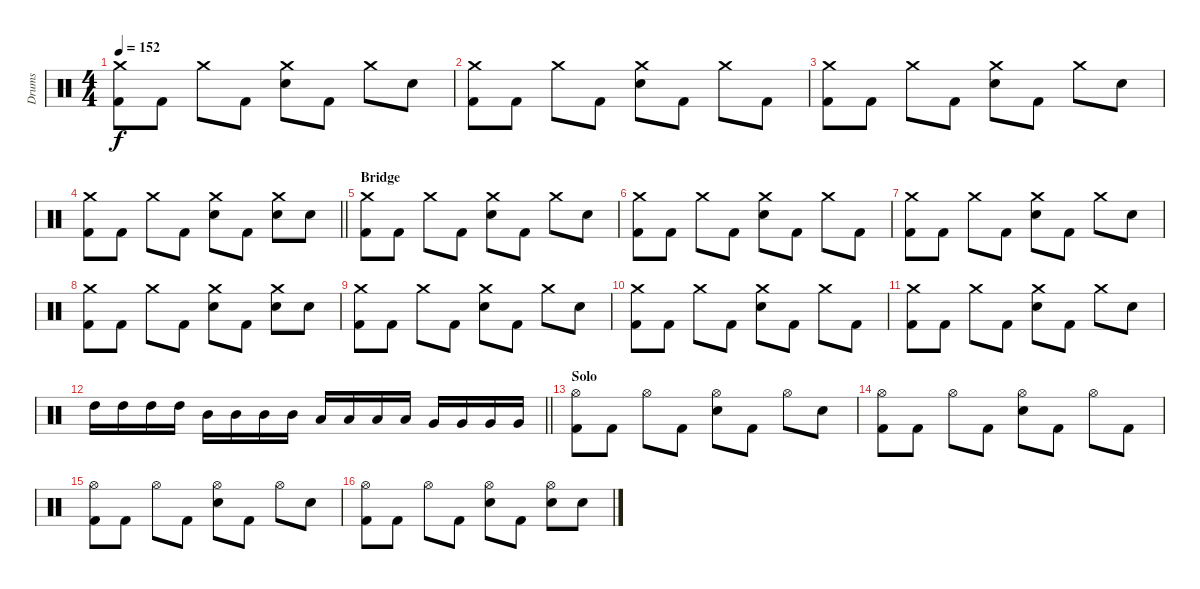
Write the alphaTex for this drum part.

\track ("Drums" "Drums") {instrument percussion}
\staff {score}
\articulation defaults
\ts (4 4)
\tempo 152
\clef neutral
\ks c
("Crash medium (hit)" "Kick (hit) 2").8{dy f} "Kick (hit) 2".8 "Crash medium (hit)".8 "Kick (hit) 2".8 ("Crash medium (hit)" "Electric Snare (hit)").8 "Kick (hit) 2".8 "Crash medium (hit)".8 "Electric Snare (hit)".8 |
("Crash medium (hit)" "Kick (hit) 2").8 "Kick (hit) 2".8 "Crash medium (hit)".8 "Kick (hit) 2".8 ("Crash medium (hit)" "Electric Snare (hit)").8 "Kick (hit) 2".8 "Crash medium (hit)".8 "Kick (hit) 2".8 |
("Crash medium (hit)" "Kick (hit) 2").8 "Kick (hit) 2".8 "Crash medium (hit)".8 "Kick (hit) 2".8 ("Crash medium (hit)" "Electric Snare (hit)").8 "Kick (hit) 2".8 "Crash medium (hit)".8 "Electric Snare (hit)".8 |
\barLineRight lightlight
("Crash medium (hit)" "Kick (hit) 2").8 "Kick (hit) 2".8 "Crash medium (hit)".8 "Kick (hit) 2".8 ("Crash medium (hit)" "Electric Snare (hit)").8 "Kick (hit) 2".8 ("Crash medium (hit)" "Electric Snare (hit)").8 "Electric Snare (hit)".8 |
\section ("" "Bridge")
("Crash medium (hit)" "Kick (hit) 2").8 "Kick (hit) 2".8 "Crash medium (hit)".8 "Kick (hit) 2".8 ("Crash medium (hit)" "Electric Snare (hit)").8 "Kick (hit) 2".8 "Crash medium (hit)".8 "Electric Snare (hit)".8 |
("Crash medium (hit)" "Kick (hit) 2").8 "Kick (hit) 2".8 "Crash medium (hit)".8 "Kick (hit) 2".8 ("Crash medium (hit)" "Electric Snare (hit)").8 "Kick (hit) 2".8 "Crash medium (hit)".8 "Kick (hit) 2".8 |
("Crash medium (hit)" "Kick (hit) 2").8 "Kick (hit) 2".8 "Crash medium (hit)".8 "Kick (hit) 2".8 ("Crash medium (hit)" "Electric Snare (hit)").8 "Kick (hit) 2".8 "Crash medium (hit)".8 "Electric Snare (hit)".8 |
("Crash medium (hit)" "Kick (hit) 2").8 "Kick (hit) 2".8 "Crash medium (hit)".8 "Kick (hit) 2".8 ("Crash medium (hit)" "Electric Snare (hit)").8 "Kick (hit) 2".8 ("Crash medium (hit)" "Electric Snare (hit)").8 "Electric Snare (hit)".8 |
("Crash medium (hit)" "Kick (hit) 2").8 "Kick (hit) 2".8 "Crash medium (hit)".8 "Kick (hit) 2".8 ("Crash medium (hit)" "Electric Snare (hit)").8 "Kick (hit) 2".8 "Crash medium (hit)".8 "Electric Snare (hit)".8 |
("Crash medium (hit)" "Kick (hit) 2").8 "Kick (hit) 2".8 "Crash medium (hit)".8 "Kick (hit) 2".8 ("Crash medium (hit)" "Electric Snare (hit)").8 "Kick (hit) 2".8 "Crash medium (hit)".8 "Kick (hit) 2".8 |
("Crash medium (hit)" "Kick (hit) 2").8 "Kick (hit) 2".8 "Crash medium (hit)".8 "Kick (hit) 2".8 ("Crash medium (hit)" "Electric Snare (hit)").8 "Kick (hit) 2".8 "Crash medium (hit)".8 "Electric Snare (hit)".8 |
\barLineRight lightlight "High Tom (hit)".16 "High Tom (hit)".16 "High Tom (hit)".16 "High Tom (hit)".16 "Mid Tom (hit)".16 "Mid Tom (hit)".16 "Mid Tom (hit)".16 "Mid Tom (hit)".16 "Low Tom (hit)".16 "Low Tom (hit)".16 "Low Tom (hit)".16 "Low Tom (hit)".16 "Very Low Tom (hit)".16 "Very Low Tom (hit)".16 "Very Low Tom (hit)".16 "Very Low Tom (hit)".16
|
\section ("" "Solo")
("Hi-Hat (open)" "Kick (hit) 2").8 "Kick (hit) 2".8 "Hi-Hat (open)".8 "Kick (hit) 2".8 ("Hi-Hat (open)" "Electric Snare (hit)").8 "Kick (hit) 2".8 "Hi-Hat (open)".8 "Electric Snare (hit)".8 |
("Hi-Hat (open)" "Kick (hit) 2").8 "Kick (hit) 2".8 "Hi-Hat (open)".8 "Kick (hit) 2".8 ("Hi-Hat (open)" "Electric Snare (hit)").8 "Kick (hit) 2".8 "Hi-Hat (open)".8 "Kick (hit) 2".8 |
("Hi-Hat (open)" "Kick (hit) 2").8 "Kick (hit) 2".8 "Hi-Hat (open)".8 "Kick (hit) 2".8 ("Hi-Hat (open)" "Electric Snare (hit)").8 "Kick (hit) 2".8 "Hi-Hat (open)".8 "Electric Snare (hit)".8 |
("Hi-Hat (open)" "Kick (hit) 2").8 "Kick (hit) 2".8 "Hi-Hat (open)".8 "Kick (hit) 2".8 ("Hi-Hat (open)" "Electric Snare (hit)").8 "Kick (hit) 2".8 ("Hi-Hat (open)" "Electric Snare (hit)").8 "Electric Snare (hit)".8
